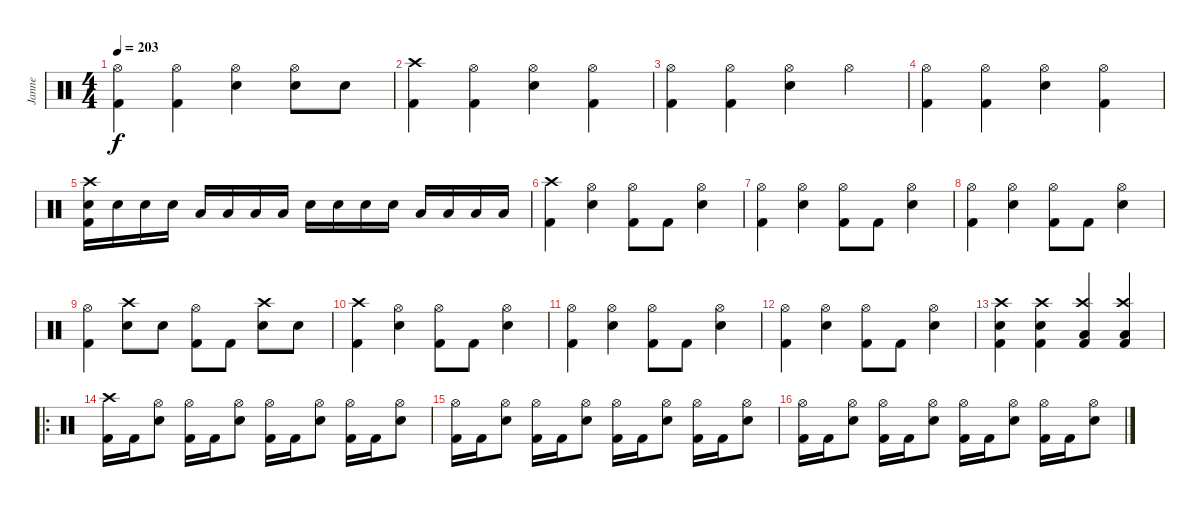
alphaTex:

\track ("Janne" "Janne") {instrument percussion}
\staff {score}
\articulation defaults
\ts (4 4)
\tempo 203
\clef neutral
\ks c
("Hi-Hat (open)" "Kick (hit) 2").4{dy f} ("Hi-Hat (open)" "Kick (hit) 2").4 ("Hi-Hat (open)" "Electric Snare (hit)").4 ("Hi-Hat (open)" "Electric Snare (hit)").8 "Electric Snare (hit)".8 |
("Crash high (hit)" "Kick (hit) 2").4 ("Hi-Hat (open)" "Kick (hit) 2").4 ("Hi-Hat (open)" "Electric Snare (hit)").4 ("Hi-Hat (open)" "Kick (hit) 2").4 |
("Hi-Hat (open)" "Kick (hit) 2").4 ("Hi-Hat (open)" "Kick (hit) 2").4 ("Hi-Hat (open)" "Electric Snare (hit)").4 "Hi-Hat (open)".4 |
("Hi-Hat (open)" "Kick (hit) 2").4 ("Hi-Hat (open)" "Kick (hit) 2").4 ("Hi-Hat (open)" "Electric Snare (hit)").4 ("Hi-Hat (open)" "Kick (hit) 2").4 |
("Crash high (hit)" "Electric Snare (hit)" "Kick (hit) 2").16 "Electric Snare (hit)".16 "Electric Snare (hit)".16 "Electric Snare (hit)".16 "Low Tom (hit)".16 "Low Tom (hit)".16 "Low Tom (hit)".16 "Low Tom (hit)".16 "Electric Snare (hit)".16 "Electric Snare (hit)".16 "Electric Snare (hit)".16 "Electric Snare (hit)".16 "Low Floor Tom (hit)".16 "Low Floor Tom (hit)".16 "Low Floor Tom (hit)".16 "Low Floor Tom (hit)".16 |
("Crash high (hit)" "Kick (hit) 2").4 ("Hi-Hat (open)" "Electric Snare (hit)").4 ("Hi-Hat (open)" "Kick (hit) 2").8 "Kick (hit) 2".8 ("Hi-Hat (open)" "Electric Snare (hit)").4 |
("Hi-Hat (open)" "Kick (hit) 2").4 ("Hi-Hat (open)" "Electric Snare (hit)").4 ("Hi-Hat (open)" "Kick (hit) 2").8 "Kick (hit) 2".8 ("Hi-Hat (open)" "Electric Snare (hit)").4 |
("Hi-Hat (open)" "Kick (hit) 2").4 ("Hi-Hat (open)" "Electric Snare (hit)").4 ("Hi-Hat (open)" "Kick (hit) 2").8 "Kick (hit) 2".8 ("Hi-Hat (open)" "Electric Snare (hit)").4 |
("Hi-Hat (open)" "Kick (hit) 2").4 ("Crash high (hit)" "Electric Snare (hit)").8 "Electric Snare (hit)".8 ("Hi-Hat (open)" "Kick (hit) 2").8 "Kick (hit) 2".8 ("Crash high (hit)" "Electric Snare (hit)").8 "Electric Snare (hit)".8 |
("Crash high (hit)" "Kick (hit) 2").4 ("Hi-Hat (open)" "Electric Snare (hit)").4 ("Hi-Hat (open)" "Kick (hit) 2").8 "Kick (hit) 2".8 ("Hi-Hat (open)" "Electric Snare (hit)").4 |
("Hi-Hat (open)" "Kick (hit) 2").4 ("Hi-Hat (open)" "Electric Snare (hit)").4 ("Hi-Hat (open)" "Kick (hit) 2").8 "Kick (hit) 2".8 ("Hi-Hat (open)" "Electric Snare (hit)").4 |
("Hi-Hat (open)" "Kick (hit) 2").4 ("Hi-Hat (open)" "Electric Snare (hit)").4 ("Hi-Hat (open)" "Kick (hit) 2").8 "Kick (hit) 2".8 ("Hi-Hat (open)" "Electric Snare (hit)").4 |
("Crash high (hit)" "Electric Snare (hit)" "Kick (hit) 2").4 ("Crash high (hit)" "Electric Snare (hit)" "Kick (hit) 2").4 ("Crash high (hit)" "Low Floor Tom (hit)" "Kick (hit) 2").4 ("Crash high (hit)" "Low Floor Tom (hit)" "Kick (hit) 2").4 |
\ro
("Crash high (hit)" "Kick (hit) 2").16 "Kick (hit) 2".16 ("Hi-Hat (open)" "Electric Snare (hit)").8 ("Hi-Hat (open)" "Kick (hit) 2").16 "Kick (hit) 2".16 ("Hi-Hat (open)" "Electric Snare (hit)").8 ("Hi-Hat (open)" "Kick (hit) 2").16 "Kick (hit) 2".16 ("Hi-Hat (open)" "Electric Snare (hit)").8 ("Hi-Hat (open)" "Kick (hit) 2").16 "Kick (hit) 2".16 ("Hi-Hat (open)" "Electric Snare (hit)").8 |
("Hi-Hat (open)" "Kick (hit) 2").16 "Kick (hit) 2".16 ("Hi-Hat (open)" "Electric Snare (hit)").8 ("Hi-Hat (open)" "Kick (hit) 2").16 "Kick (hit) 2".16 ("Hi-Hat (open)" "Electric Snare (hit)").8 ("Hi-Hat (open)" "Kick (hit) 2").16 "Kick (hit) 2".16 ("Hi-Hat (open)" "Electric Snare (hit)").8 ("Hi-Hat (open)" "Kick (hit) 2").16 "Kick (hit) 2".16 ("Hi-Hat (open)" "Electric Snare (hit)").8 |
("Hi-Hat (open)" "Kick (hit) 2").16 "Kick (hit) 2".16 ("Hi-Hat (open)" "Electric Snare (hit)").8 ("Hi-Hat (open)" "Kick (hit) 2").16 "Kick (hit) 2".16 ("Hi-Hat (open)" "Electric Snare (hit)").8 ("Hi-Hat (open)" "Kick (hit) 2").16 "Kick (hit) 2".16 ("Hi-Hat (open)" "Electric Snare (hit)").8 ("Hi-Hat (open)" "Kick (hit) 2").16 "Kick (hit) 2".16 ("Hi-Hat (open)" "Electric Snare (hit)").8
